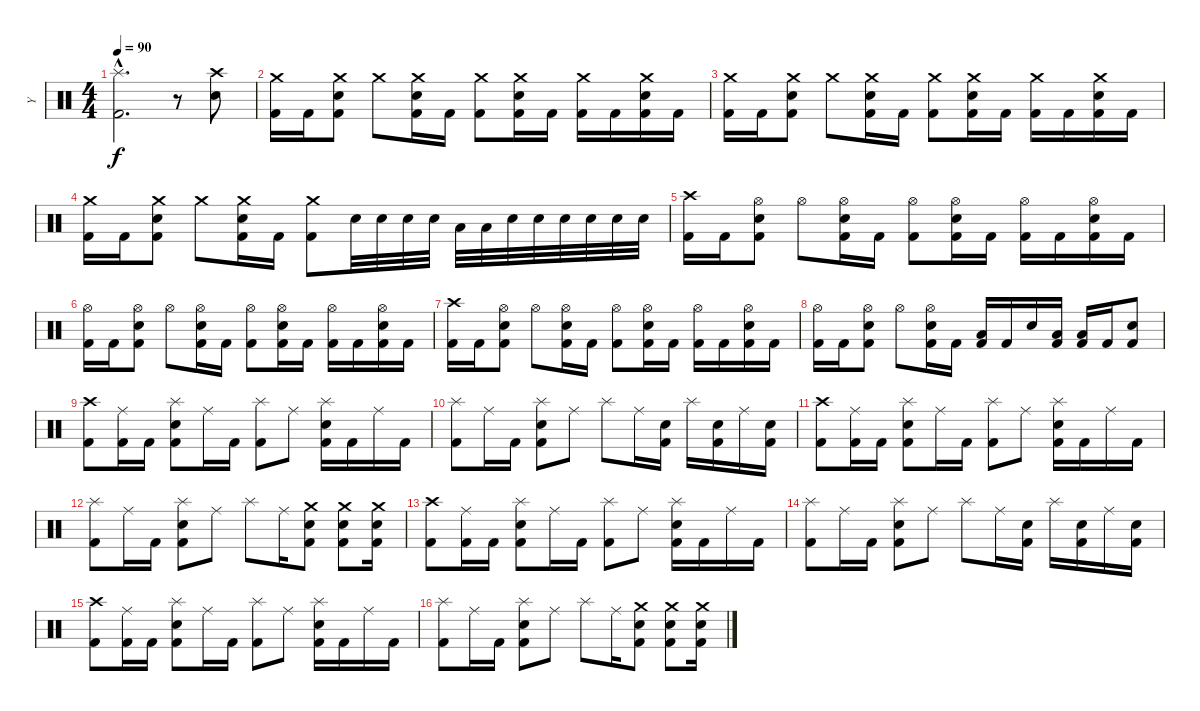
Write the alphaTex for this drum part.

\track ("Y" "Y") {instrument percussion}
\staff {score}
\articulation defaults
\ts (4 4)
\tempo 90
\clef neutral
\ks c
("Splash (hit)"{hac} "Kick (hit) 2"{hac}).2{d dy f} r.8 ("Crash high (hit)" "Electric Snare (hit)").8 |
("Crash medium (hit)" "Kick (hit) 2").16 "Kick (hit) 2".16 ("Crash medium (hit)" "Electric Snare (hit)" "Kick (hit) 2").8 "Crash medium (hit)".8 ("Crash medium (hit)" "Electric Snare (hit)" "Kick (hit) 2").16 "Kick (hit) 2".16 ("Crash medium (hit)" "Kick (hit) 2").8 ("Crash medium (hit)" "Electric Snare (hit)" "Kick (hit) 2").16 "Kick (hit) 2".16 ("Crash medium (hit)" "Kick (hit) 2").16 "Kick (hit) 2".16 ("Crash medium (hit)" "Electric Snare (hit)" "Kick (hit) 2").16 "Kick (hit) 2".16 |
("Crash medium (hit)" "Kick (hit) 2").16 "Kick (hit) 2".16 ("Crash medium (hit)" "Electric Snare (hit)" "Kick (hit) 2").8 "Crash medium (hit)".8 ("Crash medium (hit)" "Electric Snare (hit)" "Kick (hit) 2").16 "Kick (hit) 2".16 ("Crash medium (hit)" "Kick (hit) 2").8 ("Crash medium (hit)" "Electric Snare (hit)" "Kick (hit) 2").16 "Kick (hit) 2".16 ("Crash medium (hit)" "Kick (hit) 2").16 "Kick (hit) 2".16 ("Crash medium (hit)" "Electric Snare (hit)" "Kick (hit) 2").16 "Kick (hit) 2".16 |
("Crash medium (hit)" "Kick (hit) 2").16 "Kick (hit) 2".16 ("Crash medium (hit)" "Electric Snare (hit)" "Kick (hit) 2").8 "Crash medium (hit)".8 ("Crash medium (hit)" "Electric Snare (hit)" "Kick (hit) 2").16 "Kick (hit) 2".16 ("Crash medium (hit)" "Kick (hit) 2").8 "Electric Snare (hit)".32 "Electric Snare (hit)".32 "Electric Snare (hit)".32 "Electric Snare (hit)".32 "Low Tom (hit)".32 "Low Tom (hit)".32 "Electric Snare (hit)".32 "Electric Snare (hit)".32 "Electric Snare (hit)".32 "Electric Snare (hit)".32 "Electric Snare (hit)".32 "Electric Snare (hit)".32 |
("Crash high (hit)" "Kick (hit) 2").16 "Kick (hit) 2".16 ("Hi-Hat (open)" "Electric Snare (hit)" "Kick (hit) 2").8 "Hi-Hat (open)".8 ("Hi-Hat (open)" "Electric Snare (hit)" "Kick (hit) 2").16 "Kick (hit) 2".16 ("Hi-Hat (open)" "Kick (hit) 2").8 ("Hi-Hat (open)" "Electric Snare (hit)" "Kick (hit) 2").16 "Kick (hit) 2".16 ("Hi-Hat (open)" "Kick (hit) 2").16 "Kick (hit) 2".16 ("Hi-Hat (open)" "Electric Snare (hit)" "Kick (hit) 2").16 "Kick (hit) 2".16 |
("Hi-Hat (open)" "Kick (hit) 2").16 "Kick (hit) 2".16 ("Hi-Hat (open)" "Electric Snare (hit)" "Kick (hit) 2").8 "Hi-Hat (open)".8 ("Hi-Hat (open)" "Electric Snare (hit)" "Kick (hit) 2").16 "Kick (hit) 2".16 ("Hi-Hat (open)" "Kick (hit) 2").8 ("Hi-Hat (open)" "Electric Snare (hit)" "Kick (hit) 2").16 "Kick (hit) 2".16 ("Hi-Hat (open)" "Kick (hit) 2").16 "Kick (hit) 2".16 ("Hi-Hat (open)" "Electric Snare (hit)" "Kick (hit) 2").16 "Kick (hit) 2".16 |
("Crash high (hit)" "Kick (hit) 2").16 "Kick (hit) 2".16 ("Hi-Hat (open)" "Electric Snare (hit)" "Kick (hit) 2").8 "Hi-Hat (open)".8 ("Hi-Hat (open)" "Electric Snare (hit)" "Kick (hit) 2").16 "Kick (hit) 2".16 ("Hi-Hat (open)" "Kick (hit) 2").8 ("Hi-Hat (open)" "Electric Snare (hit)" "Kick (hit) 2").16 "Kick (hit) 2".16 ("Hi-Hat (open)" "Kick (hit) 2").16 "Kick (hit) 2".16 ("Hi-Hat (open)" "Electric Snare (hit)" "Kick (hit) 2").16 "Kick (hit) 2".16 |
("Hi-Hat (open)" "Kick (hit) 2").16 "Kick (hit) 2".16 ("Hi-Hat (open)" "Electric Snare (hit)" "Kick (hit) 2").8 "Hi-Hat (open)".8 ("Hi-Hat (open)" "Electric Snare (hit)" "Kick (hit) 2").16 "Kick (hit) 2".16 ("Low Tom (hit)" "Kick (hit) 2").16 "Kick (hit) 2".16 "Electric Snare (hit)".16 ("Low Tom (hit)" "Kick (hit) 2").16 ("Low Tom (hit)" "Kick (hit) 2").16 "Kick (hit) 2".16 ("Electric Snare (hit)" "Kick (hit) 2").8 |
("Crash high (hit)" "Kick (hit) 2").8 ("Ride (middle)" "Kick (hit) 2").16 "Kick (hit) 2".16 ("Splash (hit)" "Electric Snare (hit)" "Kick (hit) 2").8 "Ride (middle)".16 "Kick (hit) 2".16 ("Splash (hit)" "Kick (hit) 2").8 "Ride (middle)".8 ("Splash (hit)" "Electric Snare (hit)" "Kick (hit) 2").16 "Kick (hit) 2".16 "Ride (middle)".16 "Kick (hit) 2".16 |
("Splash (hit)" "Kick (hit) 2").8 "Ride (middle)".16 "Kick (hit) 2".16 ("Splash (hit)" "Electric Snare (hit)" "Kick (hit) 2").8 "Ride (middle)".8 "Splash (hit)".8 "Ride (middle)".16 ("Electric Snare (hit)" "Kick (hit) 2").16 "Splash (hit)".16 ("Electric Snare (hit)" "Kick (hit) 2").16 "Ride (middle)".16 ("Electric Snare (hit)" "Kick (hit) 2").16 |
("Crash high (hit)" "Kick (hit) 2").8 ("Ride (middle)" "Kick (hit) 2").16 "Kick (hit) 2".16 ("Splash (hit)" "Electric Snare (hit)" "Kick (hit) 2").8 "Ride (middle)".16 "Kick (hit) 2".16 ("Splash (hit)" "Kick (hit) 2").8 "Ride (middle)".8 ("Splash (hit)" "Electric Snare (hit)" "Kick (hit) 2").16 "Kick (hit) 2".16 "Ride (middle)".16 "Kick (hit) 2".16 |
("Splash (hit)" "Kick (hit) 2").8 "Ride (middle)".16 "Kick (hit) 2".16 ("Splash (hit)" "Electric Snare (hit)" "Kick (hit) 2").8 "Ride (middle)".8 "Splash (hit)".8 "Ride (middle)".16 ("Crash medium (hit)" "Electric Snare (hit)" "Kick (hit) 2").8 ("Crash medium (hit)" "Electric Snare (hit)" "Kick (hit) 2").8 ("Crash medium (hit)" "Electric Snare (hit)" "Kick (hit) 2").16 |
("Crash high (hit)" "Kick (hit) 2").8 ("Ride (middle)" "Kick (hit) 2").16 "Kick (hit) 2".16 ("Splash (hit)" "Electric Snare (hit)" "Kick (hit) 2").8 "Ride (middle)".16 "Kick (hit) 2".16 ("Splash (hit)" "Kick (hit) 2").8 "Ride (middle)".8 ("Splash (hit)" "Electric Snare (hit)" "Kick (hit) 2").16 "Kick (hit) 2".16 "Ride (middle)".16 "Kick (hit) 2".16 |
("Splash (hit)" "Kick (hit) 2").8 "Ride (middle)".16 "Kick (hit) 2".16 ("Splash (hit)" "Electric Snare (hit)" "Kick (hit) 2").8 "Ride (middle)".8 "Splash (hit)".8 "Ride (middle)".16 ("Electric Snare (hit)" "Kick (hit) 2").16 "Splash (hit)".16 ("Electric Snare (hit)" "Kick (hit) 2").16 "Ride (middle)".16 ("Electric Snare (hit)" "Kick (hit) 2").16 |
("Crash high (hit)" "Kick (hit) 2").8 ("Ride (middle)" "Kick (hit) 2").16 "Kick (hit) 2".16 ("Splash (hit)" "Electric Snare (hit)" "Kick (hit) 2").8 "Ride (middle)".16 "Kick (hit) 2".16 ("Splash (hit)" "Kick (hit) 2").8 "Ride (middle)".8 ("Splash (hit)" "Electric Snare (hit)" "Kick (hit) 2").16 "Kick (hit) 2".16 "Ride (middle)".16 "Kick (hit) 2".16 |
("Splash (hit)" "Kick (hit) 2").8 "Ride (middle)".16 "Kick (hit) 2".16 ("Splash (hit)" "Electric Snare (hit)" "Kick (hit) 2").8 "Ride (middle)".8 "Splash (hit)".8 "Ride (middle)".16 ("Crash medium (hit)" "Electric Snare (hit)" "Kick (hit) 2").8 ("Crash medium (hit)" "Electric Snare (hit)" "Kick (hit) 2").8 ("Crash medium (hit)" "Electric Snare (hit)" "Kick (hit) 2").16
